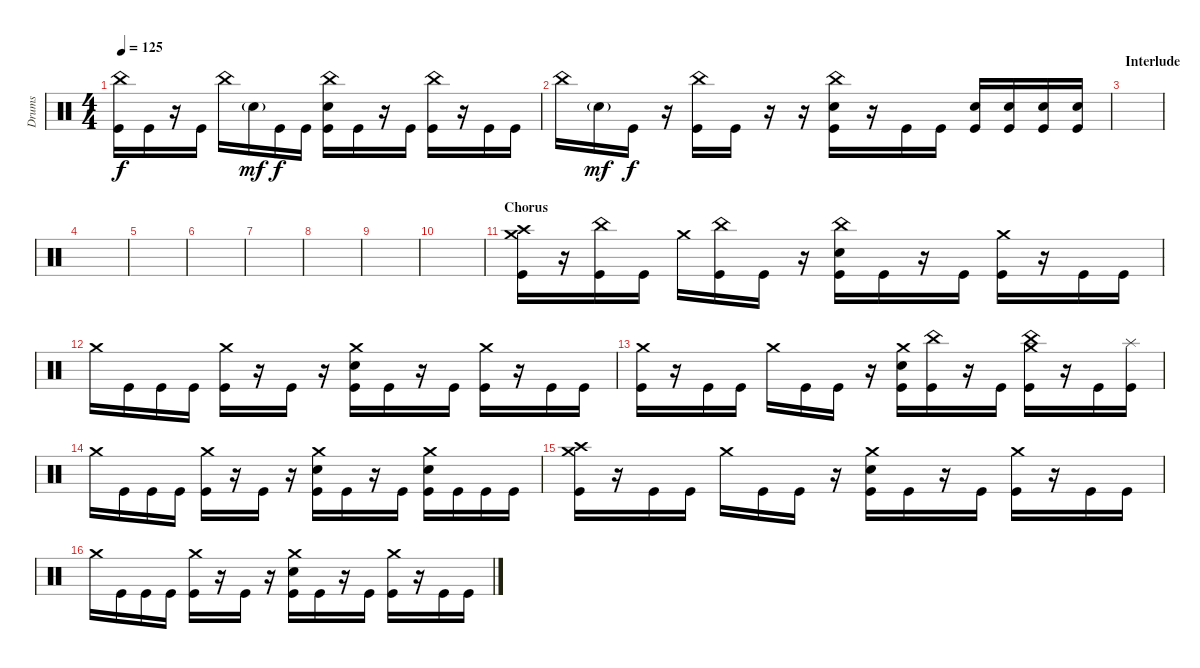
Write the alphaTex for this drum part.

\track ("Drums" "Drums") {instrument percussion}
\staff {score}
\articulation defaults
\ts (4 4)
\tempo 125
\clef neutral
\ks c
("China (hit)" "Kick (hit)").16{dy f} "Kick (hit)".16 r.16 "Kick (hit)".16 "China (hit)".16 "Snare (hit) 2"{g}.16{dy mf} "Kick (hit)".16{dy f} "Kick (hit)".16 ("Snare (hit) 2" "China (hit)" "Kick (hit)").16 "Kick (hit)".16 r.16 "Kick (hit)".16 ("China (hit)" "Kick (hit)").16 r.16 "Kick (hit)".16 "Kick (hit)".16 |
"China (hit)".16 "Snare (hit) 2"{g}.16{dy mf} "Kick (hit)".16{dy f} r.16 ("China (hit)" "Kick (hit)").16 "Kick (hit)".16 r.16 r.16 ("China (hit)" "Snare (hit) 2" "Kick (hit)").16 r.16 "Kick (hit)".16 "Kick (hit)".16 ("Kick (hit)" "Snare (hit) 2").16 ("Kick (hit)" "Snare (hit) 2").16 ("Kick (hit)" "Snare (hit) 2").16 ("Kick (hit)" "Snare (hit) 2").16 |
\section ("" "Interlude")
|
|
|
|
|
|
|
|
\section ("" "Chorus")
("Kick (hit)" "Crash high (hit)" "Crash medium (hit)").16 r.16 ("Kick (hit)" "China (hit)").16 "Kick (hit)".16 "Crash medium (hit)".16 ("Kick (hit)" "China (hit)").16 "Kick (hit)".16 r.16 ("Kick (hit)" "Snare (hit) 2" "China (hit)").16 "Kick (hit)".16 r.16 "Kick (hit)".16 ("Kick (hit)" "Crash medium (hit)").16 r.16 "Kick (hit)".16 "Kick (hit)".16 |
"Crash medium (hit)".16 "Kick (hit)".16 "Kick (hit)".16 "Kick (hit)".16 ("Crash medium (hit)" "Kick (hit)").16 r.16 "Kick (hit)".16 r.16 ("Crash medium (hit)" "Snare (hit) 2" "Kick (hit)").16 "Kick (hit)".16 r.16 "Kick (hit)".16 ("Crash medium (hit)" "Kick (hit)").16 r.16 "Kick (hit)".16 "Kick (hit)".16 |
("Kick (hit)" "Crash medium (hit)").16 r.16 "Kick (hit)".16 "Kick (hit)".16 "Crash medium (hit)".16 "Kick (hit)".16 "Kick (hit)".16 r.16 ("Kick (hit)" "Snare (hit) 2" "Crash medium (hit)").16 ("Kick (hit)" "China (hit)").16 r.16 "Kick (hit)".16 ("Kick (hit)" "Crash medium (hit)" "China (hit)").16 r.16 "Kick (hit)".16 ("Kick (hit)" "Splash (hit)").16 |
"Crash medium (hit)".16 "Kick (hit)".16 "Kick (hit)".16 "Kick (hit)".16 ("Crash medium (hit)" "Kick (hit)").16 r.16 "Kick (hit)".16 r.16 ("Crash medium (hit)" "Snare (hit) 2" "Kick (hit)").16 "Kick (hit)".16 r.16 "Kick (hit)".16 ("Crash medium (hit)" "Kick (hit)" "Snare (hit) 2").16 "Kick (hit)".16 "Kick (hit)".16 "Kick (hit)".16 |
("Kick (hit)" "Crash high (hit)" "Crash medium (hit)").16 r.16 "Kick (hit)".16 "Kick (hit)".16 "Crash medium (hit)".16 "Kick (hit)".16 "Kick (hit)".16 r.16 ("Kick (hit)" "Snare (hit) 2" "Crash medium (hit)").16 "Kick (hit)".16 r.16 "Kick (hit)".16 ("Kick (hit)" "Crash medium (hit)").16 r.16 "Kick (hit)".16 "Kick (hit)".16 |
"Crash medium (hit)".16 "Kick (hit)".16 "Kick (hit)".16 "Kick (hit)".16 ("Crash medium (hit)" "Kick (hit)").16 r.16 "Kick (hit)".16 r.16 ("Crash medium (hit)" "Snare (hit) 2" "Kick (hit)").16 "Kick (hit)".16 r.16 "Kick (hit)".16 ("Crash medium (hit)" "Kick (hit)").16 r.16 "Kick (hit)".16 "Kick (hit)".16
